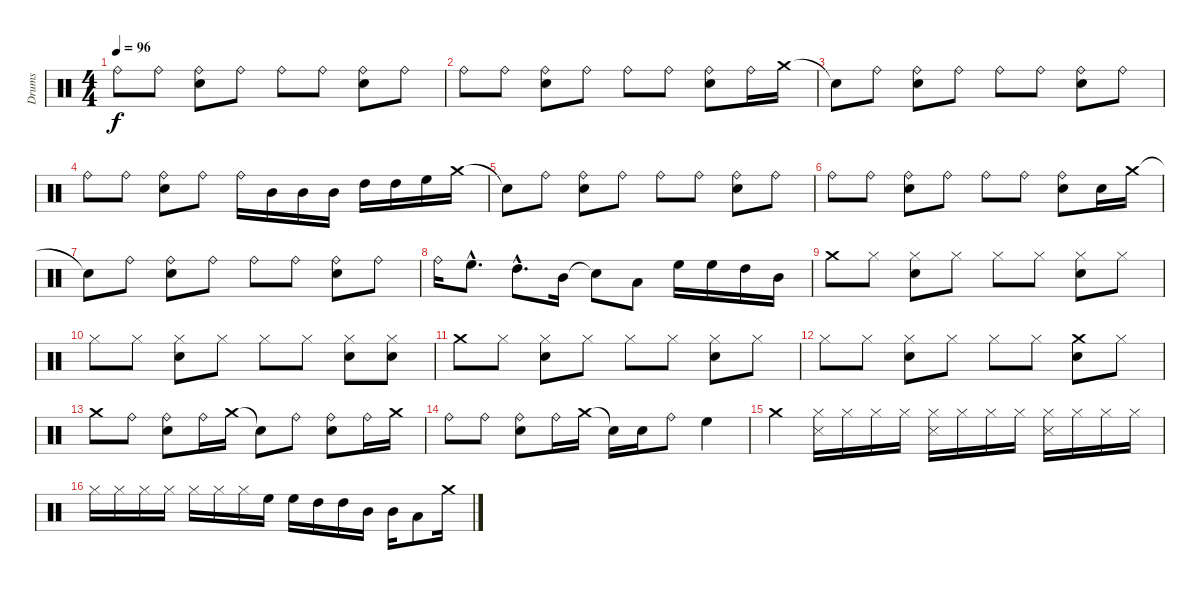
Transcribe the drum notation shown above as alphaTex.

\track ("Drums" "Drums") {instrument percussion}
\staff {score}
\articulation defaults
\ts (4 4)
\tempo 96
\clef neutral
\ks c "Ride (bell)"{t}.8{dy f} "Ride (bell)".8
("Ride (bell)" "Electric Snare (hit)").8 "Ride (bell)".8 "Ride (bell)".8 "Ride (bell)".8 ("Ride (bell)" "Electric Snare (hit)").8 "Ride (bell)".8 |
"Ride (bell)".8 "Ride (bell)".8 ("Ride (bell)" "Electric Snare (hit)").8 "Ride (bell)".8 "Ride (bell)".8 "Ride (bell)".8 ("Ride (bell)" "Electric Snare (hit)").8 "Ride (bell)".16 "Crash medium (hit)".16 |
"Snare (hit)"{t}.8 "Ride (bell)".8 ("Ride (bell)" "Electric Snare (hit)").8 "Ride (bell)".8 "Ride (bell)".8 "Ride (bell)".8 ("Ride (bell)" "Electric Snare (hit)").8 "Ride (bell)".8 |
"Ride (bell)".8 "Ride (bell)".8 ("Ride (bell)" "Electric Snare (hit)").8 "Ride (bell)".8 "Ride (bell)".16 "Mid Tom (hit)".16 "Mid Tom (hit)".16 "Mid Tom (hit)".16 "High Tom (hit)".16 "High Tom (hit)".16 "High Floor Tom (hit)".16 "Crash medium (hit)".16 |
"Snare (hit)"{t}.8 "Ride (bell)".8 ("Ride (bell)" "Electric Snare (hit)").8 "Ride (bell)".8 "Ride (bell)".8 "Ride (bell)".8 ("Ride (bell)" "Electric Snare (hit)").8 "Ride (bell)".8 |
"Ride (bell)".8 "Ride (bell)".8 ("Ride (bell)" "Electric Snare (hit)").8 "Ride (bell)".8 "Ride (bell)".8 "Ride (bell)".8 ("Ride (bell)" "Electric Snare (hit)").8 "Electric Snare (hit)".16 "Crash medium (hit)".16 |
"Snare (hit)"{t}.8 "Ride (bell)".8 ("Ride (bell)" "Electric Snare (hit)").8 "Ride (bell)".8 "Ride (bell)".8 "Ride (bell)".8 ("Ride (bell)" "Electric Snare (hit)").8 "Ride (bell)".8 |
"Ride (bell)".16 "High Floor Tom (hit)"{hac}.8{d} "High Tom (hit)"{hac}.8{d} "Mid Tom (hit)".16 "Snare (hit)"{t}.8 "Low Tom (hit)".8 "High Floor Tom (hit)".16 "High Floor Tom (hit)".16 "High Tom (hit)".16 "Mid Tom (hit)".16 |
"Crash medium (hit)".8 "Hi-Hat (closed)".8 ("Hi-Hat (closed)" "Electric Snare (hit)").8 "Hi-Hat (closed)".8 "Hi-Hat (closed)".8 "Hi-Hat (closed)".8 ("Hi-Hat (closed)" "Electric Snare (hit)").8 "Hi-Hat (closed)".8 |
"Hi-Hat (closed)".8 "Hi-Hat (closed)".8 ("Hi-Hat (closed)" "Electric Snare (hit)").8 "Hi-Hat (closed)".8 "Hi-Hat (closed)".8 "Hi-Hat (closed)".8 ("Hi-Hat (closed)" "Electric Snare (hit)").8 ("Hi-Hat (closed)" "Electric Snare (hit)").8 |
"Crash medium (hit)".8 "Hi-Hat (closed)".8 ("Hi-Hat (closed)" "Electric Snare (hit)").8 "Hi-Hat (closed)".8 "Hi-Hat (closed)".8 "Hi-Hat (closed)".8 ("Hi-Hat (closed)" "Electric Snare (hit)").8 "Hi-Hat (closed)".8 |
"Hi-Hat (closed)".8 "Hi-Hat (closed)".8 ("Hi-Hat (closed)" "Electric Snare (hit)").8 "Hi-Hat (closed)".8 "Hi-Hat (closed)".8 "Hi-Hat (closed)".8 ("Crash medium (hit)" "Electric Snare (hit)").8 "Hi-Hat (closed)".8 |
"Crash medium (hit)".8 "Ride (bell)".8 ("Ride (bell)" "Electric Snare (hit)").8 "Ride (bell)".16 "Crash medium (hit)".16 "Snare (hit)"{t}.8 "Ride (bell)".8 ("Ride (bell)" "Electric Snare (hit)").8 "Ride (bell)".16 "Crash medium (hit)".16 |
"Ride (bell)".8 "Ride (bell)".8 ("Ride (bell)" "Electric Snare (hit)").8 "Ride (bell)".16 "Crash medium (hit)".16 "Snare (hit)"{t}.16 "Electric Snare (hit)".16 "Ride (bell)".8 "High Floor Tom (hit)".4 |
"Crash medium (hit)".4 ("Hi-Hat (closed)" "Snare (side stick) 3").16 "Hi-Hat (closed)".16 "Hi-Hat (closed)".16 "Hi-Hat (closed)".16 ("Hi-Hat (closed)" "Snare (side stick) 3").16 "Hi-Hat (closed)".16 "Hi-Hat (closed)".16 "Hi-Hat (closed)".16 ("Hi-Hat (closed)" "Snare (side stick) 3").16 "Hi-Hat (closed)".16 "Hi-Hat (closed)".16 "Hi-Hat (closed)".16 |
"Hi-Hat (closed)".16 "Hi-Hat (closed)".16 "Hi-Hat (closed)".16 "Hi-Hat (closed)".16 "Hi-Hat (closed)".16 "Hi-Hat (closed)".16 "Hi-Hat (closed)".16 "High Floor Tom (hit)".16 "High Floor Tom (hit)".16 "High Tom (hit)".16 "High Tom (hit)".16 "Mid Tom (hit)".16 "Mid Tom (hit)".16 "Low Tom (hit)".8 "Crash medium (hit)".16
